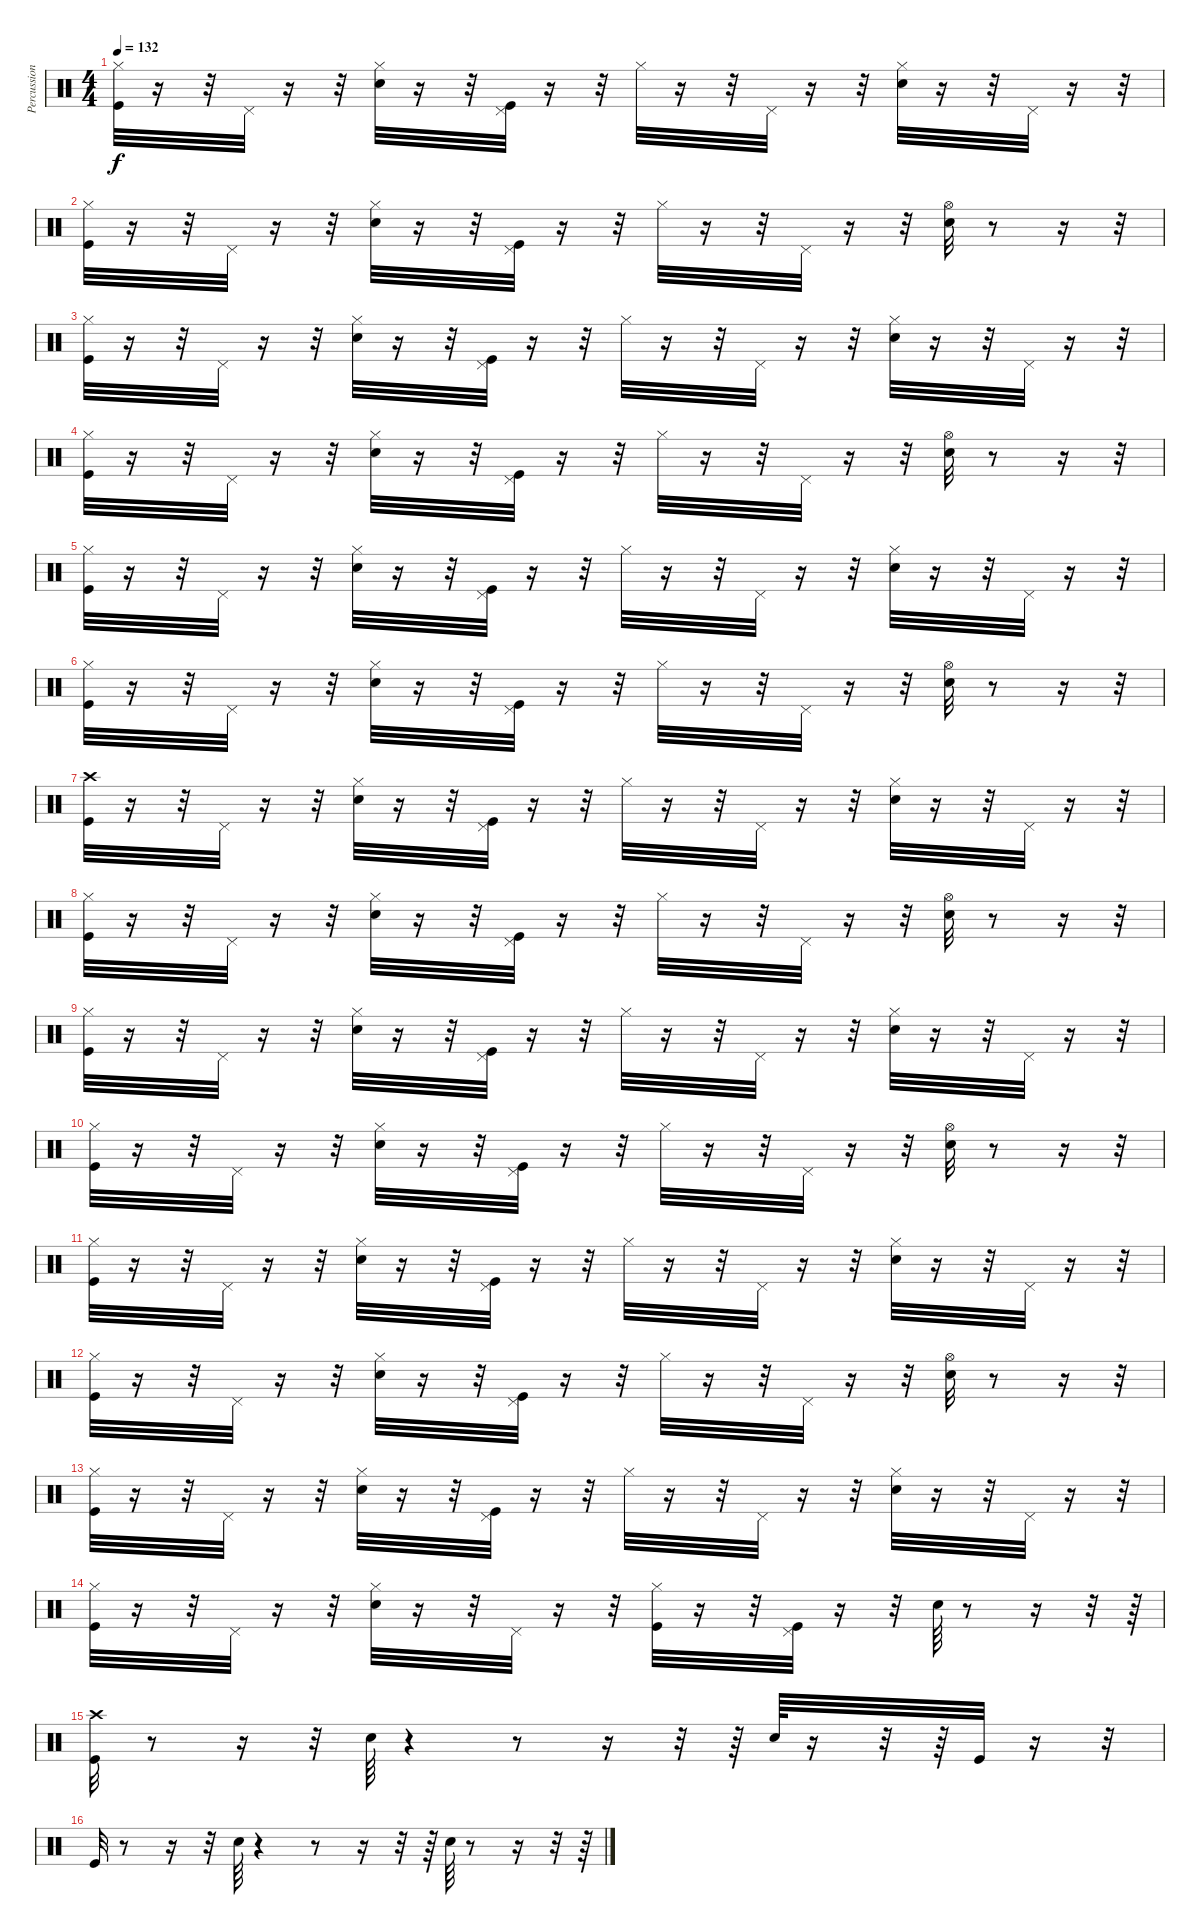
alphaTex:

\track ("Percussions" "Percussion") {instrument percussion}
\staff {score}
\articulation defaults
\ts (4 4)
\tempo 132
\clef neutral
\ks c
("Hi-Hat (closed)" "Kick (hit)").32{dy f} r.16 r.32 "Pedal Hi-Hat (hit)".32 r.16 r.32 ("Hi-Hat (closed)" "Electric Snare (hit)").32 r.16 r.32 ("Pedal Hi-Hat (hit)" "Kick (hit)").32 r.16 r.32 "Hi-Hat (closed)".32 r.16 r.32 "Pedal Hi-Hat (hit)".32 r.16 r.32 ("Hi-Hat (closed)" "Electric Snare (hit)").32 r.16 r.32 "Pedal Hi-Hat (hit)".32 r.16 r.32 |
("Hi-Hat (closed)" "Kick (hit)").32 r.16 r.32 "Pedal Hi-Hat (hit)".32 r.16 r.32 ("Hi-Hat (closed)" "Electric Snare (hit)").32 r.16 r.32 ("Pedal Hi-Hat (hit)" "Kick (hit)").32 r.16 r.32 "Hi-Hat (closed)".32 r.16 r.32 "Pedal Hi-Hat (hit)".32 r.16 r.32 ("Hi-Hat (open)" "Electric Snare (hit)").32 r.8 r.16 r.32 |
("Hi-Hat (closed)" "Kick (hit)").32 r.16 r.32 "Pedal Hi-Hat (hit)".32 r.16 r.32 ("Hi-Hat (closed)" "Electric Snare (hit)").32 r.16 r.32 ("Pedal Hi-Hat (hit)" "Kick (hit)").32 r.16 r.32 "Hi-Hat (closed)".32 r.16 r.32 "Pedal Hi-Hat (hit)".32 r.16 r.32 ("Hi-Hat (closed)" "Electric Snare (hit)").32 r.16 r.32 "Pedal Hi-Hat (hit)".32 r.16 r.32 |
("Hi-Hat (closed)" "Kick (hit)").32 r.16 r.32 "Pedal Hi-Hat (hit)".32 r.16 r.32 ("Hi-Hat (closed)" "Electric Snare (hit)").32 r.16 r.32 ("Pedal Hi-Hat (hit)" "Kick (hit)").32 r.16 r.32 "Hi-Hat (closed)".32 r.16 r.32 "Pedal Hi-Hat (hit)".32 r.16 r.32 ("Hi-Hat (open)" "Electric Snare (hit)").32 r.8 r.16 r.32 |
("Hi-Hat (closed)" "Kick (hit)").32 r.16 r.32 "Pedal Hi-Hat (hit)".32 r.16 r.32 ("Hi-Hat (closed)" "Electric Snare (hit)").32 r.16 r.32 ("Pedal Hi-Hat (hit)" "Kick (hit)").32 r.16 r.32 "Hi-Hat (closed)".32 r.16 r.32 "Pedal Hi-Hat (hit)".32 r.16 r.32 ("Hi-Hat (closed)" "Electric Snare (hit)").32 r.16 r.32 "Pedal Hi-Hat (hit)".32 r.16 r.32 |
("Hi-Hat (closed)" "Kick (hit)").32 r.16 r.32 "Pedal Hi-Hat (hit)".32 r.16 r.32 ("Hi-Hat (closed)" "Electric Snare (hit)").32 r.16 r.32 ("Pedal Hi-Hat (hit)" "Kick (hit)").32 r.16 r.32 "Hi-Hat (closed)".32 r.16 r.32 "Pedal Hi-Hat (hit)".32 r.16 r.32 ("Hi-Hat (open)" "Electric Snare (hit)").32 r.8 r.16 r.32 |
("Crash high (hit)" "Kick (hit)").32 r.16 r.32 "Pedal Hi-Hat (hit)".32 r.16 r.32 ("Hi-Hat (closed)" "Electric Snare (hit)").32 r.16 r.32 ("Pedal Hi-Hat (hit)" "Kick (hit)").32 r.16 r.32 "Hi-Hat (closed)".32 r.16 r.32 "Pedal Hi-Hat (hit)".32 r.16 r.32 ("Hi-Hat (closed)" "Electric Snare (hit)").32 r.16 r.32 "Pedal Hi-Hat (hit)".32 r.16 r.32 |
("Hi-Hat (closed)" "Kick (hit)").32 r.16 r.32 "Pedal Hi-Hat (hit)".32 r.16 r.32 ("Hi-Hat (closed)" "Electric Snare (hit)").32 r.16 r.32 ("Pedal Hi-Hat (hit)" "Kick (hit)").32 r.16 r.32 "Hi-Hat (closed)".32 r.16 r.32 "Pedal Hi-Hat (hit)".32 r.16 r.32 ("Hi-Hat (open)" "Electric Snare (hit)").32 r.8 r.16 r.32 |
("Hi-Hat (closed)" "Kick (hit)").32 r.16 r.32 "Pedal Hi-Hat (hit)".32 r.16 r.32 ("Hi-Hat (closed)" "Electric Snare (hit)").32 r.16 r.32 ("Pedal Hi-Hat (hit)" "Kick (hit)").32 r.16 r.32 "Hi-Hat (closed)".32 r.16 r.32 "Pedal Hi-Hat (hit)".32 r.16 r.32 ("Hi-Hat (closed)" "Electric Snare (hit)").32 r.16 r.32 "Pedal Hi-Hat (hit)".32 r.16 r.32 |
("Hi-Hat (closed)" "Kick (hit)").32 r.16 r.32 "Pedal Hi-Hat (hit)".32 r.16 r.32 ("Hi-Hat (closed)" "Electric Snare (hit)").32 r.16 r.32 ("Pedal Hi-Hat (hit)" "Kick (hit)").32 r.16 r.32 "Hi-Hat (closed)".32 r.16 r.32 "Pedal Hi-Hat (hit)".32 r.16 r.32 ("Hi-Hat (open)" "Electric Snare (hit)").32 r.8 r.16 r.32 |
("Hi-Hat (closed)" "Kick (hit)").32 r.16 r.32 "Pedal Hi-Hat (hit)".32 r.16 r.32 ("Hi-Hat (closed)" "Electric Snare (hit)").32 r.16 r.32 ("Pedal Hi-Hat (hit)" "Kick (hit)").32 r.16 r.32 "Hi-Hat (closed)".32 r.16 r.32 "Pedal Hi-Hat (hit)".32 r.16 r.32 ("Hi-Hat (closed)" "Electric Snare (hit)").32 r.16 r.32 "Pedal Hi-Hat (hit)".32 r.16 r.32 |
("Hi-Hat (closed)" "Kick (hit)").32 r.16 r.32 "Pedal Hi-Hat (hit)".32 r.16 r.32 ("Hi-Hat (closed)" "Electric Snare (hit)").32 r.16 r.32 ("Pedal Hi-Hat (hit)" "Kick (hit)").32 r.16 r.32 "Hi-Hat (closed)".32 r.16 r.32 "Pedal Hi-Hat (hit)".32 r.16 r.32 ("Hi-Hat (open)" "Electric Snare (hit)").32 r.8 r.16 r.32 |
("Hi-Hat (closed)" "Kick (hit)").32 r.16 r.32 "Pedal Hi-Hat (hit)".32 r.16 r.32 ("Hi-Hat (closed)" "Electric Snare (hit)").32 r.16 r.32 ("Pedal Hi-Hat (hit)" "Kick (hit)").32 r.16 r.32 "Hi-Hat (closed)".32 r.16 r.32 "Pedal Hi-Hat (hit)".32 r.16 r.32 ("Hi-Hat (closed)" "Electric Snare (hit)").32 r.16 r.32 "Pedal Hi-Hat (hit)".32 r.16 r.32 |
("Hi-Hat (closed)" "Kick (hit)").32 r.16 r.32 "Pedal Hi-Hat (hit)".32 r.16 r.32 ("Hi-Hat (closed)" "Electric Snare (hit)").32 r.16 r.32 "Pedal Hi-Hat (hit)".32 r.16 r.32 ("Kick (hit)" "Hi-Hat (closed)").32 r.16 r.32 ("Kick (hit)" "Pedal Hi-Hat (hit)").32 r.16 r.32 "Electric Snare (hit)".64 r.8 r.16 r.32 r.64 |
("Crash high (hit)" "Kick (hit)").32 r.8 r.16 r.32 "Electric Snare (hit)".64 r.4 r.8 r.16 r.32 r.64 "Electric Snare (hit)".64 r.16 r.32 r.64 "Kick (hit)".32 r.16 r.32 |
"Kick (hit)".32 r.8 r.16 r.32 "Electric Snare (hit)".64 r.4 r.8 r.16 r.32 r.64 "Electric Snare (hit)".64 r.8 r.16 r.32 r.64
